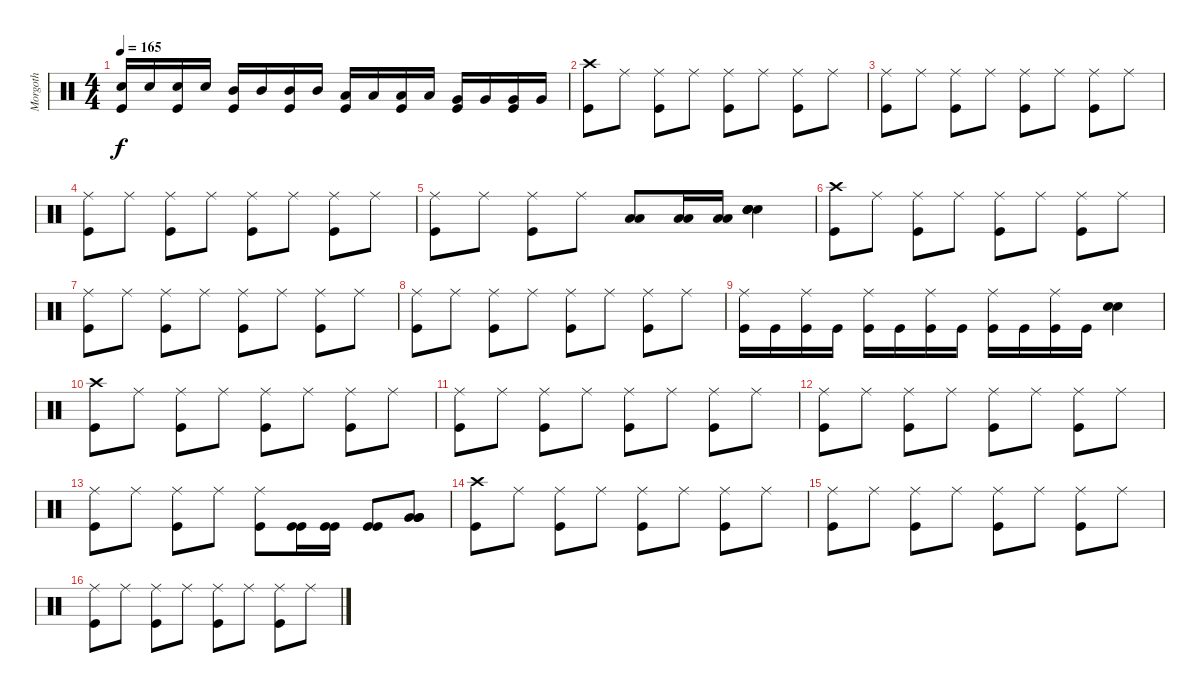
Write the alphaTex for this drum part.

\track ("Morgoth" "Morgoth") {instrument percussion}
\staff {score}
\articulation defaults
\ts (4 4)
\tempo 165
\clef neutral
\ks c
("Kick (hit)" "Snare (hit) 2").16{dy f} "Snare (hit) 2".16 ("Kick (hit)" "Snare (hit) 2").16 "Snare (hit) 2".16 ("Kick (hit)" "Mid Tom (hit)").16 "Mid Tom (hit)".16 ("Kick (hit)" "Mid Tom (hit)").16 "Mid Tom (hit)".16 ("Kick (hit)" "Low Tom (hit)").16 "Low Tom (hit)".16 ("Kick (hit)" "Low Tom (hit)").16 "Low Tom (hit)".16 ("Kick (hit)" "Very Low Tom (hit)").16 "Very Low Tom (hit)".16 ("Kick (hit)" "Very Low Tom (hit)").16 "Very Low Tom (hit)".16 |
("Crash high (hit)" "Kick (hit)").8 "Ride (middle)".8 ("Ride (middle)" "Kick (hit)").8 "Ride (middle)".8 ("Ride (middle)" "Kick (hit)").8 "Ride (middle)".8 ("Ride (middle)" "Kick (hit)").8 "Ride (middle)".8 |
("Ride (middle)" "Kick (hit)").8 "Ride (middle)".8 ("Ride (middle)" "Kick (hit)").8 "Ride (middle)".8 ("Ride (middle)" "Kick (hit)").8 "Ride (middle)".8 ("Ride (middle)" "Kick (hit)").8 "Ride (middle)".8 |
("Ride (middle)" "Kick (hit)").8 "Ride (middle)".8 ("Ride (middle)" "Kick (hit)").8 "Ride (middle)".8 ("Ride (middle)" "Kick (hit)").8 "Ride (middle)".8 ("Ride (middle)" "Kick (hit)").8 "Ride (middle)".8 |
("Ride (middle)" "Kick (hit)").8 "Ride (middle)".8 ("Ride (middle)" "Kick (hit)").8 "Ride (middle)".8 ("Low Tom (hit)" "Low Tom (hit)").8 ("Low Tom (hit)" "Low Tom (hit)").16 ("Low Tom (hit)" "Low Tom (hit)").16 ("Electric Snare (hit)" "Electric Snare (hit)" "Electric Snare (hit)" "Electric Snare (hit)").4 |
("Crash high (hit)" "Kick (hit)").8 "Ride (middle)".8 ("Ride (middle)" "Kick (hit)").8 "Ride (middle)".8 ("Ride (middle)" "Kick (hit)").8 "Ride (middle)".8 ("Ride (middle)" "Kick (hit)").8 "Ride (middle)".8 |
("Ride (middle)" "Kick (hit)").8 "Ride (middle)".8 ("Ride (middle)" "Kick (hit)").8 "Ride (middle)".8 ("Ride (middle)" "Kick (hit)").8 "Ride (middle)".8 ("Ride (middle)" "Kick (hit)").8 "Ride (middle)".8 |
("Ride (middle)" "Kick (hit)").8 "Ride (middle)".8 ("Ride (middle)" "Kick (hit)").8 "Ride (middle)".8 ("Ride (middle)" "Kick (hit)").8 "Ride (middle)".8 ("Ride (middle)" "Kick (hit)").8 "Ride (middle)".8 |
("Ride (middle)" "Kick (hit)").16 "Kick (hit)".16 ("Ride (middle)" "Kick (hit)").16 "Kick (hit)".16 ("Ride (middle)" "Kick (hit)").16 "Kick (hit)".16 ("Ride (middle)" "Kick (hit)").16 "Kick (hit)".16 ("Ride (middle)" "Kick (hit)").16 "Kick (hit)".16 ("Ride (middle)" "Kick (hit)").16 "Kick (hit)".16 ("Electric Snare (hit)" "Electric Snare (hit)").4 |
("Crash high (hit)" "Kick (hit)").8 "Ride (middle)".8 ("Ride (middle)" "Kick (hit)").8 "Ride (middle)".8 ("Ride (middle)" "Kick (hit)").8 "Ride (middle)".8 ("Ride (middle)" "Kick (hit)").8 "Ride (middle)".8 |
("Ride (middle)" "Kick (hit)").8 "Ride (middle)".8 ("Ride (middle)" "Kick (hit)").8 "Ride (middle)".8 ("Ride (middle)" "Kick (hit)").8 "Ride (middle)".8 ("Ride (middle)" "Kick (hit)").8 "Ride (middle)".8 |
("Ride (middle)" "Kick (hit)").8 "Ride (middle)".8 ("Ride (middle)" "Kick (hit)").8 "Ride (middle)".8 ("Ride (middle)" "Kick (hit)").8 "Ride (middle)".8 ("Ride (middle)" "Kick (hit)").8 "Ride (middle)".8 |
("Ride (middle)" "Kick (hit)").8 "Ride (middle)".8 ("Ride (middle)" "Kick (hit)").8 "Ride (middle)".8 ("Ride (middle)" "Kick (hit)").8 ("Kick (hit)" "Kick (hit)").16 ("Kick (hit)" "Kick (hit)").16 ("Kick (hit)" "Kick (hit)").8 ("Very Low Tom (hit)" "Very Low Tom (hit)" "Very Low Tom (hit)").8 |
("Crash high (hit)" "Kick (hit)").8 "Ride (middle)".8 ("Ride (middle)" "Kick (hit)").8 "Ride (middle)".8 ("Ride (middle)" "Kick (hit)").8 "Ride (middle)".8 ("Ride (middle)" "Kick (hit)").8 "Ride (middle)".8 |
("Ride (middle)" "Kick (hit)").8 "Ride (middle)".8 ("Ride (middle)" "Kick (hit)").8 "Ride (middle)".8 ("Ride (middle)" "Kick (hit)").8 "Ride (middle)".8 ("Ride (middle)" "Kick (hit)").8 "Ride (middle)".8 |
("Ride (middle)" "Kick (hit)").8 "Ride (middle)".8 ("Ride (middle)" "Kick (hit)").8 "Ride (middle)".8 ("Ride (middle)" "Kick (hit)").8 "Ride (middle)".8 ("Ride (middle)" "Kick (hit)").8 "Ride (middle)".8
